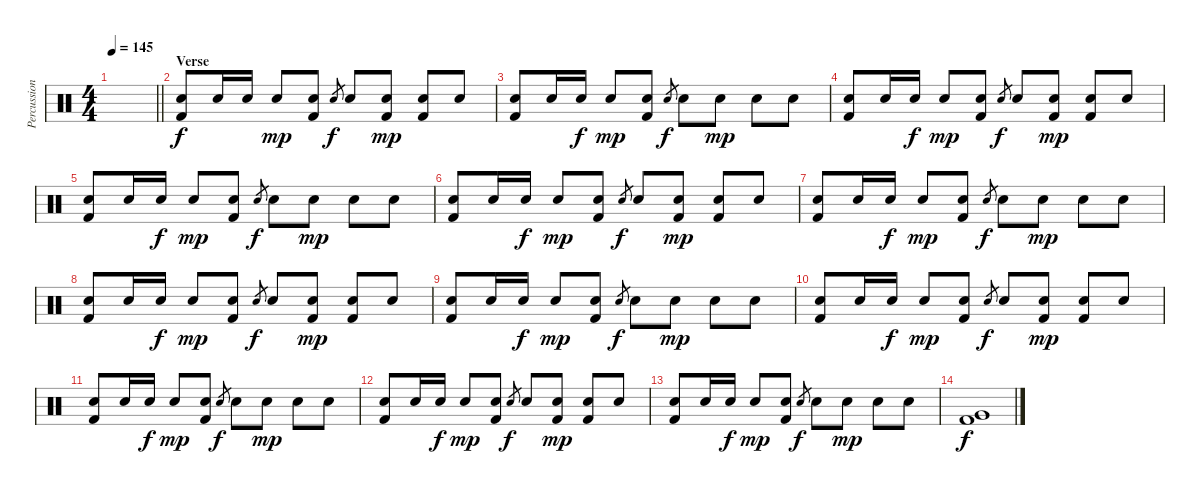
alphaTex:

\track ("Percussion" "Percussion") {instrument percussion}
\staff {score}
\articulation defaults
\ts (4 4)
\tempo 145
\clef neutral
\barLineRight lightlight
\ks c
|
\section ("" "Verse")
("Electric Snare (hit)" "Kick (hit) 2").8 "Electric Snare (hit)".16 "Electric Snare (hit)".16{dy f} "Electric Snare (hit)".8{dy mp} ("Electric Snare (hit)" "Kick (hit) 2").8 "Electric Snare (hit)".8{gr dy f} "Electric Snare (hit)".8 ("Electric Snare (hit)" "Kick (hit) 2").8{dy mp} ("Electric Snare (hit)" "Kick (hit) 2").8 "Electric Snare (hit)".8 |
("Electric Snare (hit)" "Kick (hit) 2").8 "Electric Snare (hit)".16 "Electric Snare (hit)".16{dy f} "Electric Snare (hit)".8{dy mp} ("Electric Snare (hit)" "Kick (hit) 2").8 "Electric Snare (hit)".8{gr dy f} "Electric Snare (hit)".8 "Electric Snare (hit)".8{dy mp} "Electric Snare (hit)".8 "Electric Snare (hit)".8 |
("Electric Snare (hit)" "Kick (hit) 2").8 "Electric Snare (hit)".16 "Electric Snare (hit)".16{dy f} "Electric Snare (hit)".8{dy mp} ("Electric Snare (hit)" "Kick (hit) 2").8 "Electric Snare (hit)".8{gr dy f} "Electric Snare (hit)".8 ("Electric Snare (hit)" "Kick (hit) 2").8{dy mp} ("Electric Snare (hit)" "Kick (hit) 2").8 "Electric Snare (hit)".8 |
("Electric Snare (hit)" "Kick (hit) 2").8 "Electric Snare (hit)".16 "Electric Snare (hit)".16{dy f} "Electric Snare (hit)".8{dy mp} ("Electric Snare (hit)" "Kick (hit) 2").8 "Electric Snare (hit)".8{gr dy f} "Electric Snare (hit)".8 "Electric Snare (hit)".8{dy mp} "Electric Snare (hit)".8 "Electric Snare (hit)".8 |
("Electric Snare (hit)" "Kick (hit) 2").8 "Electric Snare (hit)".16 "Electric Snare (hit)".16{dy f} "Electric Snare (hit)".8{dy mp} ("Electric Snare (hit)" "Kick (hit) 2").8 "Electric Snare (hit)".8{gr dy f} "Electric Snare (hit)".8 ("Electric Snare (hit)" "Kick (hit) 2").8{dy mp} ("Electric Snare (hit)" "Kick (hit) 2").8 "Electric Snare (hit)".8 |
("Electric Snare (hit)" "Kick (hit) 2").8 "Electric Snare (hit)".16 "Electric Snare (hit)".16{dy f} "Electric Snare (hit)".8{dy mp} ("Electric Snare (hit)" "Kick (hit) 2").8 "Electric Snare (hit)".8{gr dy f} "Electric Snare (hit)".8 "Electric Snare (hit)".8{dy mp} "Electric Snare (hit)".8 "Electric Snare (hit)".8 |
("Electric Snare (hit)" "Kick (hit) 2").8 "Electric Snare (hit)".16 "Electric Snare (hit)".16{dy f} "Electric Snare (hit)".8{dy mp} ("Electric Snare (hit)" "Kick (hit) 2").8 "Electric Snare (hit)".8{gr dy f} "Electric Snare (hit)".8 ("Electric Snare (hit)" "Kick (hit) 2").8{dy mp} ("Electric Snare (hit)" "Kick (hit) 2").8 "Electric Snare (hit)".8 |
("Electric Snare (hit)" "Kick (hit) 2").8 "Electric Snare (hit)".16 "Electric Snare (hit)".16{dy f} "Electric Snare (hit)".8{dy mp} ("Electric Snare (hit)" "Kick (hit) 2").8 "Electric Snare (hit)".8{gr dy f} "Electric Snare (hit)".8 "Electric Snare (hit)".8{dy mp} "Electric Snare (hit)".8 "Electric Snare (hit)".8 |
("Electric Snare (hit)" "Kick (hit) 2").8 "Electric Snare (hit)".16 "Electric Snare (hit)".16{dy f} "Electric Snare (hit)".8{dy mp} ("Electric Snare (hit)" "Kick (hit) 2").8 "Electric Snare (hit)".8{gr dy f} "Electric Snare (hit)".8 ("Electric Snare (hit)" "Kick (hit) 2").8{dy mp} ("Electric Snare (hit)" "Kick (hit) 2").8 "Electric Snare (hit)".8 |
("Electric Snare (hit)" "Kick (hit) 2").8 "Electric Snare (hit)".16 "Electric Snare (hit)".16{dy f} "Electric Snare (hit)".8{dy mp} ("Electric Snare (hit)" "Kick (hit) 2").8 "Electric Snare (hit)".8{gr dy f} "Electric Snare (hit)".8 "Electric Snare (hit)".8{dy mp} "Electric Snare (hit)".8 "Electric Snare (hit)".8 |
("Electric Snare (hit)" "Kick (hit) 2").8 "Electric Snare (hit)".16 "Electric Snare (hit)".16{dy f} "Electric Snare (hit)".8{dy mp} ("Electric Snare (hit)" "Kick (hit) 2").8 "Electric Snare (hit)".8{gr dy f} "Electric Snare (hit)".8 ("Electric Snare (hit)" "Kick (hit) 2").8{dy mp} ("Electric Snare (hit)" "Kick (hit) 2").8 "Electric Snare (hit)".8 |
("Electric Snare (hit)" "Kick (hit) 2").8 "Electric Snare (hit)".16 "Electric Snare (hit)".16{dy f} "Electric Snare (hit)".8{dy mp} ("Electric Snare (hit)" "Kick (hit) 2").8 "Electric Snare (hit)".8{gr dy f} "Electric Snare (hit)".8 "Electric Snare (hit)".8{dy mp} "Electric Snare (hit)".8 "Electric Snare (hit)".8 |
("Very Low Tom (hit)" "Kick (hit) 2").1{dy f}
